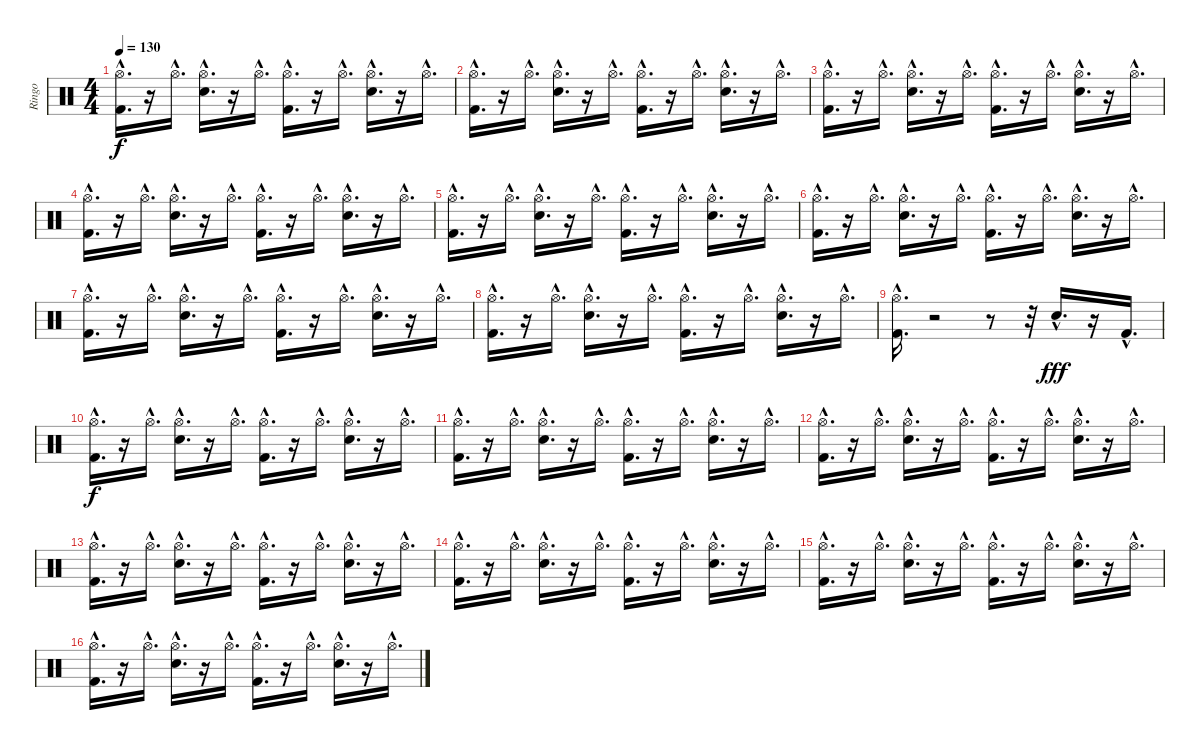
\track ("Ringo" "Ringo") {instrument percussion}
\staff {score}
\articulation defaults
\ts (4 4)
\tempo 130
\clef neutral
\ks c
("Hi-Hat (open)"{hac} "Kick (hit) 2"{hac}).16{d dy f} r.16 "Hi-Hat (open)"{hac}.16{d} ("Hi-Hat (open)"{hac} "Snare (hit) 2"{hac}).16{d} r.16 "Hi-Hat (open)"{hac}.16{d} ("Hi-Hat (open)"{hac} "Kick (hit) 2"{hac}).16{d} r.16 "Hi-Hat (open)"{hac}.16{d} ("Hi-Hat (open)"{hac} "Snare (hit) 2"{hac}).16{d} r.16 "Hi-Hat (open)"{hac}.16{d} |
("Kick (hit) 2"{hac} "Hi-Hat (open)"{hac}).16{d} r.16 "Hi-Hat (open)"{hac}.16{d} ("Snare (hit) 2"{hac} "Hi-Hat (open)"{hac}).16{d} r.16 "Hi-Hat (open)"{hac}.16{d} ("Kick (hit) 2"{hac} "Hi-Hat (open)"{hac}).16{d} r.16 "Hi-Hat (open)"{hac}.16{d} ("Snare (hit) 2"{hac} "Hi-Hat (open)"{hac}).16{d} r.16 "Hi-Hat (open)"{hac}.16{d} |
("Hi-Hat (open)"{hac} "Kick (hit) 2"{hac}).16{d} r.16 "Hi-Hat (open)"{hac}.16{d} ("Hi-Hat (open)"{hac} "Snare (hit) 2"{hac}).16{d} r.16 "Hi-Hat (open)"{hac}.16{d} ("Hi-Hat (open)"{hac} "Kick (hit) 2"{hac}).16{d} r.16 "Hi-Hat (open)"{hac}.16{d} ("Hi-Hat (open)"{hac} "Snare (hit) 2"{hac}).16{d} r.16 "Hi-Hat (open)"{hac}.16{d} |
("Hi-Hat (open)"{hac} "Kick (hit) 2"{hac}).16{d} r.16 "Hi-Hat (open)"{hac}.16{d} ("Hi-Hat (open)"{hac} "Snare (hit) 2"{hac}).16{d} r.16 "Hi-Hat (open)"{hac}.16{d} ("Hi-Hat (open)"{hac} "Kick (hit) 2"{hac}).16{d} r.16 "Hi-Hat (open)"{hac}.16{d} ("Hi-Hat (open)"{hac} "Snare (hit) 2"{hac}).16{d} r.16 "Hi-Hat (open)"{hac}.16{d} |
("Hi-Hat (open)"{hac} "Kick (hit) 2"{hac}).16{d} r.16 "Hi-Hat (open)"{hac}.16{d} ("Hi-Hat (open)"{hac} "Snare (hit) 2"{hac}).16{d} r.16 "Hi-Hat (open)"{hac}.16{d} ("Hi-Hat (open)"{hac} "Kick (hit) 2"{hac}).16{d} r.16 "Hi-Hat (open)"{hac}.16{d} ("Hi-Hat (open)"{hac} "Snare (hit) 2"{hac}).16{d} r.16 "Hi-Hat (open)"{hac}.16{d} |
("Kick (hit) 2"{hac} "Hi-Hat (open)"{hac}).16{d} r.16 "Hi-Hat (open)"{hac}.16{d} ("Snare (hit) 2"{hac} "Hi-Hat (open)"{hac}).16{d} r.16 "Hi-Hat (open)"{hac}.16{d} ("Kick (hit) 2"{hac} "Hi-Hat (open)"{hac}).16{d} r.16 "Hi-Hat (open)"{hac}.16{d} ("Snare (hit) 2"{hac} "Hi-Hat (open)"{hac}).16{d} r.16 "Hi-Hat (open)"{hac}.16{d} |
("Hi-Hat (open)"{hac} "Kick (hit) 2"{hac}).16{d} r.16 "Hi-Hat (open)"{hac}.16{d} ("Hi-Hat (open)"{hac} "Snare (hit) 2"{hac}).16{d} r.16 "Hi-Hat (open)"{hac}.16{d} ("Hi-Hat (open)"{hac} "Kick (hit) 2"{hac}).16{d} r.16 "Hi-Hat (open)"{hac}.16{d} ("Hi-Hat (open)"{hac} "Snare (hit) 2"{hac}).16{d} r.16 "Hi-Hat (open)"{hac}.16{d} |
("Hi-Hat (open)"{hac} "Kick (hit) 2"{hac}).16{d} r.16 "Hi-Hat (open)"{hac}.16{d} ("Hi-Hat (open)"{hac} "Snare (hit) 2"{hac}).16{d} r.16 "Hi-Hat (open)"{hac}.16{d} ("Hi-Hat (open)"{hac} "Kick (hit) 2"{hac}).16{d} r.16 "Hi-Hat (open)"{hac}.16{d} ("Hi-Hat (open)"{hac} "Snare (hit) 2"{hac}).16{d} r.16 "Hi-Hat (open)"{hac}.16{d} |
("Hi-Hat (open)"{hac} "Kick (hit) 2"{hac}).16{d} r.2 r.8 r.32 "Snare (hit) 2"{hac}.16{d dy fff} r.16 "Kick (hit) 2"{hac}.16{d} |
("Kick (hit) 2"{hac} "Hi-Hat (open)"{hac}).16{d dy f} r.16 "Hi-Hat (open)"{hac}.16{d} ("Snare (hit) 2"{hac} "Hi-Hat (open)"{hac}).16{d} r.16 "Hi-Hat (open)"{hac}.16{d} ("Kick (hit) 2"{hac} "Hi-Hat (open)"{hac}).16{d} r.16 "Hi-Hat (open)"{hac}.16{d} ("Snare (hit) 2"{hac} "Hi-Hat (open)"{hac}).16{d} r.16 "Hi-Hat (open)"{hac}.16{d} |
("Hi-Hat (open)"{hac} "Kick (hit) 2"{hac}).16{d} r.16 "Hi-Hat (open)"{hac}.16{d} ("Hi-Hat (open)"{hac} "Snare (hit) 2"{hac}).16{d} r.16 "Hi-Hat (open)"{hac}.16{d} ("Hi-Hat (open)"{hac} "Kick (hit) 2"{hac}).16{d} r.16 "Hi-Hat (open)"{hac}.16{d} ("Hi-Hat (open)"{hac} "Snare (hit) 2"{hac}).16{d} r.16 "Hi-Hat (open)"{hac}.16{d} |
("Hi-Hat (open)"{hac} "Kick (hit) 2"{hac}).16{d} r.16 "Hi-Hat (open)"{hac}.16{d} ("Hi-Hat (open)"{hac} "Snare (hit) 2"{hac}).16{d} r.16 "Hi-Hat (open)"{hac}.16{d} ("Hi-Hat (open)"{hac} "Kick (hit) 2"{hac}).16{d} r.16 "Hi-Hat (open)"{hac}.16{d} ("Hi-Hat (open)"{hac} "Snare (hit) 2"{hac}).16{d} r.16 "Hi-Hat (open)"{hac}.16{d} |
("Hi-Hat (open)"{hac} "Kick (hit) 2"{hac}).16{d} r.16 "Hi-Hat (open)"{hac}.16{d} ("Hi-Hat (open)"{hac} "Snare (hit) 2"{hac}).16{d} r.16 "Hi-Hat (open)"{hac}.16{d} ("Hi-Hat (open)"{hac} "Kick (hit) 2"{hac}).16{d} r.16 "Hi-Hat (open)"{hac}.16{d} ("Hi-Hat (open)"{hac} "Snare (hit) 2"{hac}).16{d} r.16 "Hi-Hat (open)"{hac}.16{d} |
("Kick (hit) 2"{hac} "Hi-Hat (open)"{hac}).16{d} r.16 "Hi-Hat (open)"{hac}.16{d} ("Snare (hit) 2"{hac} "Hi-Hat (open)"{hac}).16{d} r.16 "Hi-Hat (open)"{hac}.16{d} ("Kick (hit) 2"{hac} "Hi-Hat (open)"{hac}).16{d} r.16 "Hi-Hat (open)"{hac}.16{d} ("Snare (hit) 2"{hac} "Hi-Hat (open)"{hac}).16{d} r.16 "Hi-Hat (open)"{hac}.16{d} |
("Hi-Hat (open)"{hac} "Kick (hit) 2"{hac}).16{d} r.16 "Hi-Hat (open)"{hac}.16{d} ("Hi-Hat (open)"{hac} "Snare (hit) 2"{hac}).16{d} r.16 "Hi-Hat (open)"{hac}.16{d} ("Hi-Hat (open)"{hac} "Kick (hit) 2"{hac}).16{d} r.16 "Hi-Hat (open)"{hac}.16{d} ("Hi-Hat (open)"{hac} "Snare (hit) 2"{hac}).16{d} r.16 "Hi-Hat (open)"{hac}.16{d} |
("Hi-Hat (open)"{hac} "Kick (hit) 2"{hac}).16{d} r.16 "Hi-Hat (open)"{hac}.16{d} ("Hi-Hat (open)"{hac} "Snare (hit) 2"{hac}).16{d} r.16 "Hi-Hat (open)"{hac}.16{d} ("Hi-Hat (open)"{hac} "Kick (hit) 2"{hac}).16{d} r.16 "Hi-Hat (open)"{hac}.16{d} ("Hi-Hat (open)"{hac} "Snare (hit) 2"{hac}).16{d} r.16 "Hi-Hat (open)"{hac}.16{d}
